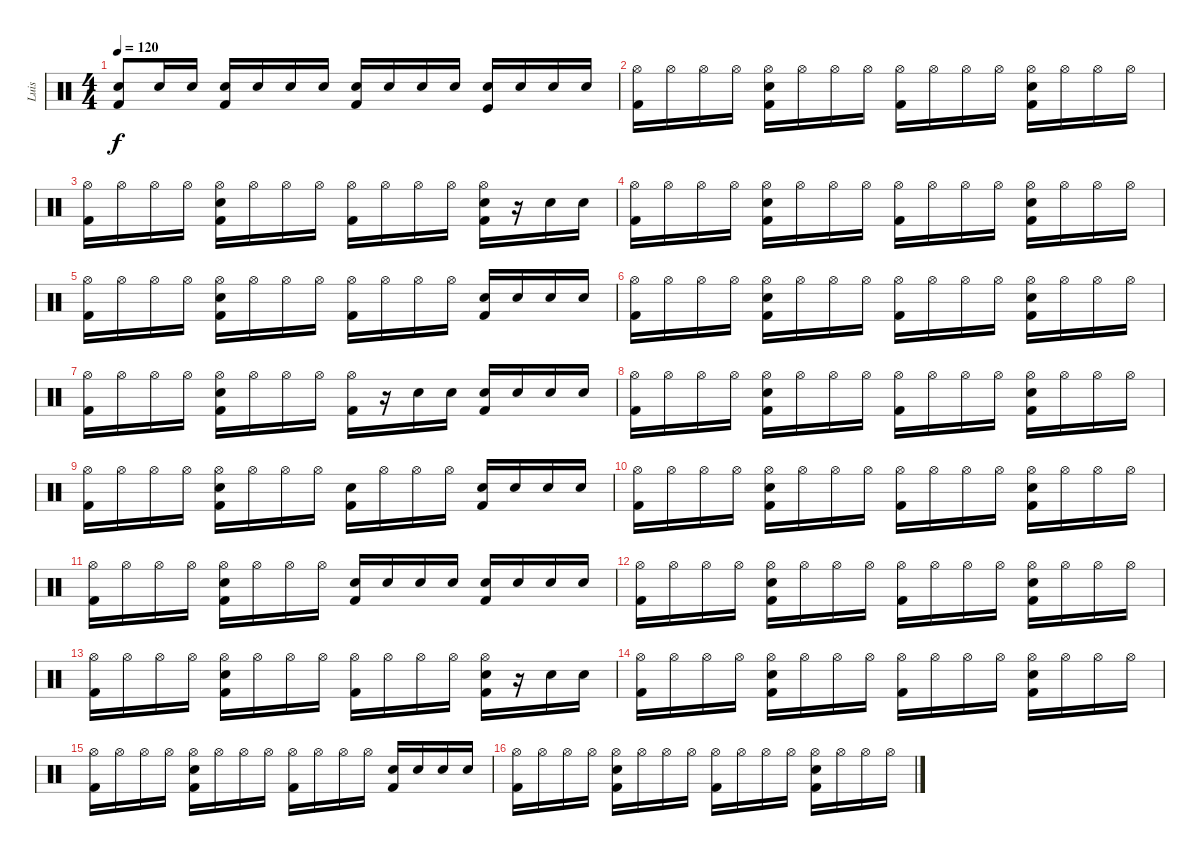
\track ("Luis" "Luis") {instrument percussion}
\staff {score}
\articulation defaults
\ts (4 4)
\tempo 120
\clef neutral
\ks c
("Electric Snare (hit)" "Kick (hit) 2").8{dy f} "Electric Snare (hit)".16 "Electric Snare (hit)".16 ("Electric Snare (hit)" "Kick (hit) 2").16 "Electric Snare (hit)".16 "Electric Snare (hit)".16 "Electric Snare (hit)".16 ("Electric Snare (hit)" "Kick (hit) 2").16 "Electric Snare (hit)".16 "Electric Snare (hit)".16 "Electric Snare (hit)".16 ("Electric Snare (hit)" "Kick (hit)").16 "Electric Snare (hit)".16 "Electric Snare (hit)".16 "Electric Snare (hit)".16 |
("Hi-Hat (open)" "Kick (hit) 2").16 "Hi-Hat (open)".16 "Hi-Hat (open)".16 "Hi-Hat (open)".16 ("Hi-Hat (open)" "Electric Snare (hit)" "Kick (hit) 2").16 "Hi-Hat (open)".16 "Hi-Hat (open)".16 "Hi-Hat (open)".16 ("Hi-Hat (open)" "Kick (hit) 2").16 "Hi-Hat (open)".16 "Hi-Hat (open)".16 "Hi-Hat (open)".16 ("Hi-Hat (open)" "Electric Snare (hit)" "Kick (hit) 2").16 "Hi-Hat (open)".16 "Hi-Hat (open)".16 "Hi-Hat (open)".16 |
("Hi-Hat (open)" "Kick (hit) 2").16 "Hi-Hat (open)".16 "Hi-Hat (open)".16 "Hi-Hat (open)".16 ("Hi-Hat (open)" "Electric Snare (hit)" "Kick (hit) 2").16 "Hi-Hat (open)".16 "Hi-Hat (open)".16 "Hi-Hat (open)".16 ("Hi-Hat (open)" "Kick (hit) 2").16 "Hi-Hat (open)".16 "Hi-Hat (open)".16 "Hi-Hat (open)".16 ("Hi-Hat (open)" "Electric Snare (hit)" "Kick (hit) 2").16 r.16 "Electric Snare (hit)".16 "Electric Snare (hit)".16 |
("Hi-Hat (open)" "Kick (hit) 2").16 "Hi-Hat (open)".16 "Hi-Hat (open)".16 "Hi-Hat (open)".16 ("Hi-Hat (open)" "Electric Snare (hit)" "Kick (hit) 2").16 "Hi-Hat (open)".16 "Hi-Hat (open)".16 "Hi-Hat (open)".16 ("Hi-Hat (open)" "Kick (hit) 2").16 "Hi-Hat (open)".16 "Hi-Hat (open)".16 "Hi-Hat (open)".16 ("Hi-Hat (open)" "Electric Snare (hit)" "Kick (hit) 2").16 "Hi-Hat (open)".16 "Hi-Hat (open)".16 "Hi-Hat (open)".16 |
("Hi-Hat (open)" "Kick (hit) 2").16 "Hi-Hat (open)".16 "Hi-Hat (open)".16 "Hi-Hat (open)".16 ("Hi-Hat (open)" "Electric Snare (hit)" "Kick (hit) 2").16 "Hi-Hat (open)".16 "Hi-Hat (open)".16 "Hi-Hat (open)".16 ("Hi-Hat (open)" "Kick (hit) 2").16 "Hi-Hat (open)".16 "Hi-Hat (open)".16 "Hi-Hat (open)".16 ("Electric Snare (hit)" "Kick (hit) 2").16 "Electric Snare (hit)".16 "Electric Snare (hit)".16 "Electric Snare (hit)".16 |
("Hi-Hat (open)" "Kick (hit) 2").16 "Hi-Hat (open)".16 "Hi-Hat (open)".16 "Hi-Hat (open)".16 ("Hi-Hat (open)" "Electric Snare (hit)" "Kick (hit) 2").16 "Hi-Hat (open)".16 "Hi-Hat (open)".16 "Hi-Hat (open)".16 ("Hi-Hat (open)" "Kick (hit) 2").16 "Hi-Hat (open)".16 "Hi-Hat (open)".16 "Hi-Hat (open)".16 ("Hi-Hat (open)" "Electric Snare (hit)" "Kick (hit) 2").16 "Hi-Hat (open)".16 "Hi-Hat (open)".16 "Hi-Hat (open)".16 |
("Hi-Hat (open)" "Kick (hit) 2").16 "Hi-Hat (open)".16 "Hi-Hat (open)".16 "Hi-Hat (open)".16 ("Hi-Hat (open)" "Electric Snare (hit)" "Kick (hit) 2").16 "Hi-Hat (open)".16 "Hi-Hat (open)".16 "Hi-Hat (open)".16 ("Hi-Hat (open)" "Kick (hit) 2").16 r.16 "Electric Snare (hit)".16 "Electric Snare (hit)".16 ("Electric Snare (hit)" "Kick (hit) 2").16 "Electric Snare (hit)".16 "Electric Snare (hit)".16 "Electric Snare (hit)".16 |
("Hi-Hat (open)" "Kick (hit) 2").16 "Hi-Hat (open)".16 "Hi-Hat (open)".16 "Hi-Hat (open)".16 ("Hi-Hat (open)" "Electric Snare (hit)" "Kick (hit) 2").16 "Hi-Hat (open)".16 "Hi-Hat (open)".16 "Hi-Hat (open)".16 ("Hi-Hat (open)" "Kick (hit) 2").16 "Hi-Hat (open)".16 "Hi-Hat (open)".16 "Hi-Hat (open)".16 ("Hi-Hat (open)" "Electric Snare (hit)" "Kick (hit) 2").16 "Hi-Hat (open)".16 "Hi-Hat (open)".16 "Hi-Hat (open)".16 |
("Hi-Hat (open)" "Kick (hit) 2").16 "Hi-Hat (open)".16 "Hi-Hat (open)".16 "Hi-Hat (open)".16 ("Hi-Hat (open)" "Electric Snare (hit)" "Kick (hit) 2").16 "Hi-Hat (open)".16 "Hi-Hat (open)".16 "Hi-Hat (open)".16 ("Electric Snare (hit)" "Kick (hit) 2").16 "Hi-Hat (open)".16 "Hi-Hat (open)".16 "Hi-Hat (open)".16 ("Electric Snare (hit)" "Kick (hit) 2").16 "Electric Snare (hit)".16 "Electric Snare (hit)".16 "Electric Snare (hit)".16 |
("Hi-Hat (open)" "Kick (hit) 2").16 "Hi-Hat (open)".16 "Hi-Hat (open)".16 "Hi-Hat (open)".16 ("Hi-Hat (open)" "Electric Snare (hit)" "Kick (hit) 2").16 "Hi-Hat (open)".16 "Hi-Hat (open)".16 "Hi-Hat (open)".16 ("Hi-Hat (open)" "Kick (hit) 2").16 "Hi-Hat (open)".16 "Hi-Hat (open)".16 "Hi-Hat (open)".16 ("Hi-Hat (open)" "Electric Snare (hit)" "Kick (hit) 2").16 "Hi-Hat (open)".16 "Hi-Hat (open)".16 "Hi-Hat (open)".16 |
("Hi-Hat (open)" "Kick (hit) 2").16 "Hi-Hat (open)".16 "Hi-Hat (open)".16 "Hi-Hat (open)".16 ("Hi-Hat (open)" "Electric Snare (hit)" "Kick (hit) 2").16 "Hi-Hat (open)".16 "Hi-Hat (open)".16 "Hi-Hat (open)".16 ("Electric Snare (hit)" "Kick (hit) 2").16 "Electric Snare (hit)".16 "Electric Snare (hit)".16 "Electric Snare (hit)".16 ("Electric Snare (hit)" "Kick (hit) 2").16 "Electric Snare (hit)".16 "Electric Snare (hit)".16 "Electric Snare (hit)".16 |
("Hi-Hat (open)" "Kick (hit) 2").16 "Hi-Hat (open)".16 "Hi-Hat (open)".16 "Hi-Hat (open)".16 ("Hi-Hat (open)" "Electric Snare (hit)" "Kick (hit) 2").16 "Hi-Hat (open)".16 "Hi-Hat (open)".16 "Hi-Hat (open)".16 ("Hi-Hat (open)" "Kick (hit) 2").16 "Hi-Hat (open)".16 "Hi-Hat (open)".16 "Hi-Hat (open)".16 ("Hi-Hat (open)" "Electric Snare (hit)" "Kick (hit) 2").16 "Hi-Hat (open)".16 "Hi-Hat (open)".16 "Hi-Hat (open)".16 |
("Hi-Hat (open)" "Kick (hit) 2").16 "Hi-Hat (open)".16 "Hi-Hat (open)".16 "Hi-Hat (open)".16 ("Hi-Hat (open)" "Electric Snare (hit)" "Kick (hit) 2").16 "Hi-Hat (open)".16 "Hi-Hat (open)".16 "Hi-Hat (open)".16 ("Hi-Hat (open)" "Kick (hit) 2").16 "Hi-Hat (open)".16 "Hi-Hat (open)".16 "Hi-Hat (open)".16 ("Hi-Hat (open)" "Electric Snare (hit)" "Kick (hit) 2").16 r.16 "Electric Snare (hit)".16 "Electric Snare (hit)".16 |
("Hi-Hat (open)" "Kick (hit) 2").16 "Hi-Hat (open)".16 "Hi-Hat (open)".16 "Hi-Hat (open)".16 ("Hi-Hat (open)" "Electric Snare (hit)" "Kick (hit) 2").16 "Hi-Hat (open)".16 "Hi-Hat (open)".16 "Hi-Hat (open)".16 ("Hi-Hat (open)" "Kick (hit) 2").16 "Hi-Hat (open)".16 "Hi-Hat (open)".16 "Hi-Hat (open)".16 ("Hi-Hat (open)" "Electric Snare (hit)" "Kick (hit) 2").16 "Hi-Hat (open)".16 "Hi-Hat (open)".16 "Hi-Hat (open)".16 |
("Hi-Hat (open)" "Kick (hit) 2").16 "Hi-Hat (open)".16 "Hi-Hat (open)".16 "Hi-Hat (open)".16 ("Hi-Hat (open)" "Electric Snare (hit)" "Kick (hit) 2").16 "Hi-Hat (open)".16 "Hi-Hat (open)".16 "Hi-Hat (open)".16 ("Hi-Hat (open)" "Kick (hit) 2").16 "Hi-Hat (open)".16 "Hi-Hat (open)".16 "Hi-Hat (open)".16 ("Electric Snare (hit)" "Kick (hit) 2").16 "Electric Snare (hit)".16 "Electric Snare (hit)".16 "Electric Snare (hit)".16 |
("Hi-Hat (open)" "Kick (hit) 2").16 "Hi-Hat (open)".16 "Hi-Hat (open)".16 "Hi-Hat (open)".16 ("Hi-Hat (open)" "Electric Snare (hit)" "Kick (hit) 2").16 "Hi-Hat (open)".16 "Hi-Hat (open)".16 "Hi-Hat (open)".16 ("Hi-Hat (open)" "Kick (hit) 2").16 "Hi-Hat (open)".16 "Hi-Hat (open)".16 "Hi-Hat (open)".16 ("Hi-Hat (open)" "Electric Snare (hit)" "Kick (hit) 2").16 "Hi-Hat (open)".16 "Hi-Hat (open)".16 "Hi-Hat (open)".16
